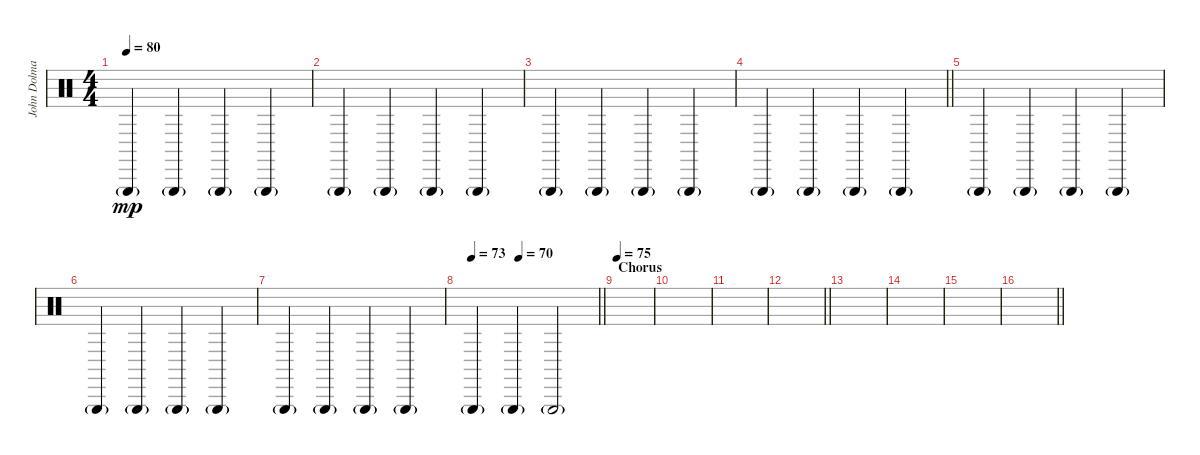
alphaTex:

\track ("John Dolmayan (extra)" "John Dolma") {instrument percussion}
\staff
\articulation defaults
\ts (4 4)
\tempo 80
\clef neutral
\ks c "Triangle (hit)"{g}.4{dy mp} "Triangle (hit)"{g}.4 "Triangle (hit)"{g}.4 "Triangle (hit)"{g}.4
|
"Triangle (hit)"{g}.4 "Triangle (hit)"{g}.4 "Triangle (hit)"{g}.4 "Triangle (hit)"{g}.4 |
"Triangle (hit)"{g}.4 "Triangle (hit)"{g}.4 "Triangle (hit)"{g}.4 "Triangle (hit)"{g}.4 |
\barLineRight lightlight "Triangle (hit)"{g}.4 "Triangle (hit)"{g}.4 "Triangle (hit)"{g}.4 "Triangle (hit)"{g}.4
|
"Triangle (hit)"{g}.4 "Triangle (hit)"{g}.4 "Triangle (hit)"{g}.4 "Triangle (hit)"{g}.4 |
"Triangle (hit)"{g}.4 "Triangle (hit)"{g}.4 "Triangle (hit)"{g}.4 "Triangle (hit)"{g}.4 |
"Triangle (hit)"{g}.4 "Triangle (hit)"{g}.4 "Triangle (hit)"{g}.4 "Triangle (hit)"{g}.4 |
\tempo 73
\tempo (70 0.375)
\barLineRight lightlight "Triangle (hit)"{g}.4 "Triangle (hit)"{g}.4 "Triangle (hit)"{g}.2
|
\section ("" "Chorus")
\tempo 75
|
|
|
\barLineRight lightlight
|
|
|
|
\barLineRight lightlight
